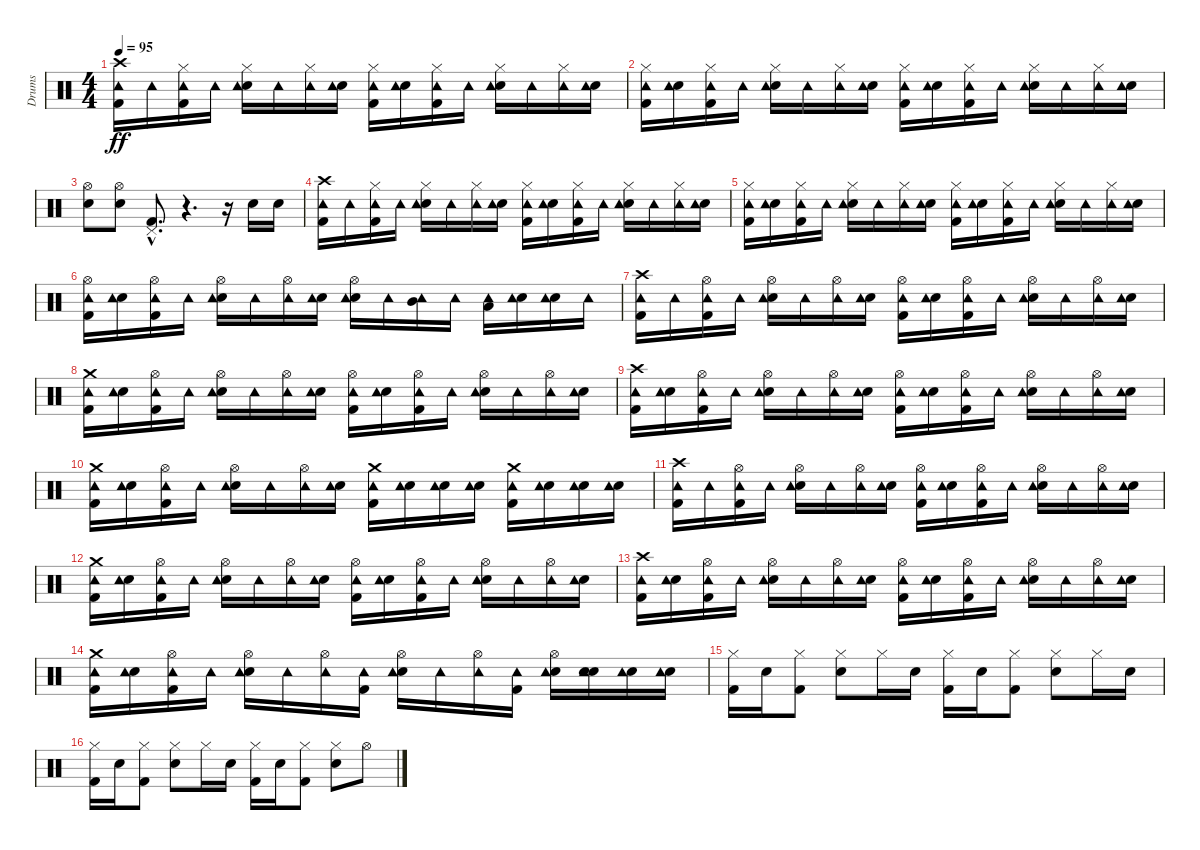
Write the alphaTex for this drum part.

\track ("Drums" "Drums") {instrument percussion}
\staff {score}
\articulation defaults
\ts (4 4)
\tempo 95
\clef neutral
\ks c
("Kick (hit) 2" "Crash high (hit)" "Tambourine (hit)").16{dy ff} "Tambourine (hit)".16 ("Kick (hit) 2" "Hi-Hat (closed)" "Tambourine (hit)").16 "Tambourine (hit)".16 ("Electric Snare (hit)" "Hi-Hat (closed)" "Tambourine (hit)").16 "Tambourine (hit)".16 ("Hi-Hat (closed)" "Tambourine (hit)").16 ("Electric Snare (hit)" "Tambourine (hit)").16 ("Kick (hit) 2" "Hi-Hat (closed)" "Tambourine (hit)").16 ("Electric Snare (hit)" "Tambourine (hit)").16 ("Kick (hit) 2" "Hi-Hat (closed)" "Tambourine (hit)").16 "Tambourine (hit)".16 ("Electric Snare (hit)" "Hi-Hat (closed)" "Tambourine (hit)").16 "Tambourine (hit)".16 ("Hi-Hat (closed)" "Tambourine (hit)").16 ("Electric Snare (hit)" "Tambourine (hit)").16 |
("Kick (hit) 2" "Hi-Hat (closed)" "Tambourine (hit)").16 ("Electric Snare (hit)" "Tambourine (hit)").16 ("Kick (hit) 2" "Hi-Hat (closed)" "Tambourine (hit)").16 "Tambourine (hit)".16 ("Electric Snare (hit)" "Hi-Hat (closed)" "Tambourine (hit)").16 "Tambourine (hit)".16 ("Hi-Hat (closed)" "Tambourine (hit)").16 ("Electric Snare (hit)" "Tambourine (hit)").16 ("Kick (hit) 2" "Hi-Hat (closed)" "Tambourine (hit)").16 ("Electric Snare (hit)" "Tambourine (hit)").16 ("Kick (hit) 2" "Hi-Hat (closed)" "Tambourine (hit)").16 "Tambourine (hit)".16 ("Electric Snare (hit)" "Hi-Hat (closed)" "Tambourine (hit)").16 "Tambourine (hit)".16 ("Hi-Hat (closed)" "Tambourine (hit)").16 ("Electric Snare (hit)" "Tambourine (hit)").16 |
("Electric Snare (hit)" "Hi-Hat (open)").8 ("Electric Snare (hit)" "Hi-Hat (open)").8 ("Kick (hit) 2"{hac} "Pedal Hi-Hat (hit)"{hac}).8{d} r.4{d} r.16 "Hand Clap (hit)".16 "Hand Clap (hit)".16 |
("Kick (hit) 2" "Crash high (hit)" "Tambourine (hit)").16 "Tambourine (hit)".16 ("Kick (hit) 2" "Hi-Hat (closed)" "Tambourine (hit)").16 "Tambourine (hit)".16 ("Electric Snare (hit)" "Hi-Hat (closed)" "Tambourine (hit)").16 "Tambourine (hit)".16 ("Hi-Hat (closed)" "Tambourine (hit)").16 ("Electric Snare (hit)" "Tambourine (hit)").16 ("Kick (hit) 2" "Hi-Hat (closed)" "Tambourine (hit)").16 ("Electric Snare (hit)" "Tambourine (hit)").16 ("Kick (hit) 2" "Hi-Hat (closed)" "Tambourine (hit)").16 "Tambourine (hit)".16 ("Electric Snare (hit)" "Hi-Hat (closed)" "Tambourine (hit)").16 "Tambourine (hit)".16 ("Hi-Hat (closed)" "Tambourine (hit)").16 ("Electric Snare (hit)" "Tambourine (hit)").16 |
("Kick (hit) 2" "Hi-Hat (closed)" "Tambourine (hit)").16 ("Electric Snare (hit)" "Tambourine (hit)").16 ("Kick (hit) 2" "Hi-Hat (closed)" "Tambourine (hit)").16 "Tambourine (hit)".16 ("Electric Snare (hit)" "Hi-Hat (closed)" "Tambourine (hit)").16 "Tambourine (hit)".16 ("Hi-Hat (closed)" "Tambourine (hit)").16 ("Electric Snare (hit)" "Tambourine (hit)").16 ("Kick (hit) 2" "Hi-Hat (closed)" "Tambourine (hit)").16 ("Electric Snare (hit)" "Tambourine (hit)").16 ("Kick (hit) 2" "Hi-Hat (closed)" "Tambourine (hit)").16 "Tambourine (hit)".16 ("Electric Snare (hit)" "Hi-Hat (closed)" "Tambourine (hit)").16 "Tambourine (hit)".16 ("Hi-Hat (closed)" "Tambourine (hit)").16 ("Electric Snare (hit)" "Tambourine (hit)").16 |
("Kick (hit) 2" "Hi-Hat (open)" "Tambourine (hit)").16 ("Electric Snare (hit)" "Tambourine (hit)").16 ("Kick (hit) 2" "Hi-Hat (open)" "Tambourine (hit)").16 "Tambourine (hit)".16 ("Electric Snare (hit)" "Hi-Hat (open)" "Tambourine (hit)").16 "Tambourine (hit)".16 ("Hi-Hat (open)" "Tambourine (hit)").16 ("Electric Snare (hit)" "Tambourine (hit)").16 ("Electric Snare (hit)" "Hi-Hat (open)" "Tambourine (hit)").16 "Tambourine (hit)".16 ("Mid Tom (hit)" "Tambourine (hit)").16 "Tambourine (hit)".16 ("Low Tom (hit)" "Tambourine (hit)").16 ("Electric Snare (hit)" "Tambourine (hit)").16 ("Electric Snare (hit)" "Tambourine (hit)").16 "Tambourine (hit)".16 |
("Kick (hit) 2" "Crash high (hit)" "Tambourine (hit)").16 "Tambourine (hit)".16 ("Kick (hit) 2" "Hi-Hat (open)" "Tambourine (hit)").16 "Tambourine (hit)".16 ("Electric Snare (hit)" "Hi-Hat (open)" "Tambourine (hit)").16 "Tambourine (hit)".16 ("Hi-Hat (open)" "Tambourine (hit)").16 ("Electric Snare (hit)" "Tambourine (hit)").16 ("Kick (hit) 2" "Hi-Hat (open)" "Tambourine (hit)").16 ("Electric Snare (hit)" "Tambourine (hit)").16 ("Kick (hit) 2" "Hi-Hat (open)" "Tambourine (hit)").16 "Tambourine (hit)".16 ("Electric Snare (hit)" "Hi-Hat (open)" "Tambourine (hit)").16 "Tambourine (hit)".16 ("Hi-Hat (open)" "Tambourine (hit)").16 ("Electric Snare (hit)" "Tambourine (hit)").16 |
("Kick (hit) 2" "Tambourine (hit)" "Crash medium (hit)").16 ("Electric Snare (hit)" "Tambourine (hit)").16 ("Kick (hit) 2" "Hi-Hat (open)" "Tambourine (hit)").16 "Tambourine (hit)".16 ("Electric Snare (hit)" "Hi-Hat (open)" "Tambourine (hit)").16 "Tambourine (hit)".16 ("Hi-Hat (open)" "Tambourine (hit)").16 ("Electric Snare (hit)" "Tambourine (hit)").16 ("Kick (hit) 2" "Hi-Hat (open)" "Tambourine (hit)").16 ("Electric Snare (hit)" "Tambourine (hit)").16 ("Kick (hit) 2" "Hi-Hat (open)" "Tambourine (hit)").16 "Tambourine (hit)".16 ("Electric Snare (hit)" "Hi-Hat (open)" "Tambourine (hit)").16 "Tambourine (hit)".16 ("Hi-Hat (open)" "Tambourine (hit)").16 ("Electric Snare (hit)" "Tambourine (hit)").16 |
("Kick (hit) 2" "Crash high (hit)" "Tambourine (hit)").16 ("Electric Snare (hit)" "Tambourine (hit)").16 ("Kick (hit) 2" "Hi-Hat (open)" "Tambourine (hit)").16 "Tambourine (hit)".16 ("Electric Snare (hit)" "Hi-Hat (open)" "Tambourine (hit)").16 "Tambourine (hit)".16 ("Hi-Hat (open)" "Tambourine (hit)").16 ("Electric Snare (hit)" "Tambourine (hit)").16 ("Kick (hit) 2" "Hi-Hat (open)" "Tambourine (hit)").16 ("Electric Snare (hit)" "Tambourine (hit)").16 ("Kick (hit) 2" "Hi-Hat (open)" "Tambourine (hit)").16 "Tambourine (hit)".16 ("Electric Snare (hit)" "Hi-Hat (open)" "Tambourine (hit)").16 "Tambourine (hit)".16 ("Hi-Hat (open)" "Tambourine (hit)").16 ("Electric Snare (hit)" "Tambourine (hit)").16 |
("Kick (hit) 2" "Tambourine (hit)" "Crash medium (hit)").16 ("Electric Snare (hit)" "Tambourine (hit)").16 ("Kick (hit) 2" "Hi-Hat (open)" "Tambourine (hit)").16 "Tambourine (hit)".16 ("Electric Snare (hit)" "Hi-Hat (open)" "Tambourine (hit)").16 "Tambourine (hit)".16 ("Hi-Hat (open)" "Tambourine (hit)").16 ("Electric Snare (hit)" "Tambourine (hit)").16 ("Kick (hit) 2" "Tambourine (hit)" "Crash medium (hit)").16 ("Electric Snare (hit)" "Tambourine (hit)").16 ("Electric Snare (hit)" "Tambourine (hit)").16 ("Electric Snare (hit)" "Tambourine (hit)").16 ("Kick (hit) 2" "Tambourine (hit)" "Crash medium (hit)").16 ("Electric Snare (hit)" "Tambourine (hit)").16 ("Electric Snare (hit)" "Tambourine (hit)").16 ("Electric Snare (hit)" "Tambourine (hit)").16 |
("Kick (hit) 2" "Crash high (hit)" "Tambourine (hit)").16 "Tambourine (hit)".16 ("Kick (hit) 2" "Hi-Hat (open)" "Tambourine (hit)").16 "Tambourine (hit)".16 ("Electric Snare (hit)" "Hi-Hat (open)" "Tambourine (hit)").16 "Tambourine (hit)".16 ("Hi-Hat (open)" "Tambourine (hit)").16 ("Electric Snare (hit)" "Tambourine (hit)").16 ("Kick (hit) 2" "Hi-Hat (open)" "Tambourine (hit)").16 ("Electric Snare (hit)" "Tambourine (hit)").16 ("Kick (hit) 2" "Hi-Hat (open)" "Tambourine (hit)").16 "Tambourine (hit)".16 ("Electric Snare (hit)" "Hi-Hat (open)" "Tambourine (hit)").16 "Tambourine (hit)".16 ("Hi-Hat (open)" "Tambourine (hit)").16 ("Electric Snare (hit)" "Tambourine (hit)").16 |
("Kick (hit) 2" "Tambourine (hit)" "Crash medium (hit)").16 ("Electric Snare (hit)" "Tambourine (hit)").16 ("Kick (hit) 2" "Hi-Hat (open)" "Tambourine (hit)").16 "Tambourine (hit)".16 ("Electric Snare (hit)" "Hi-Hat (open)" "Tambourine (hit)").16 "Tambourine (hit)".16 ("Hi-Hat (open)" "Tambourine (hit)").16 ("Electric Snare (hit)" "Tambourine (hit)").16 ("Kick (hit) 2" "Hi-Hat (open)" "Tambourine (hit)").16 ("Electric Snare (hit)" "Tambourine (hit)").16 ("Kick (hit) 2" "Hi-Hat (open)" "Tambourine (hit)").16 "Tambourine (hit)".16 ("Electric Snare (hit)" "Hi-Hat (open)" "Tambourine (hit)").16 "Tambourine (hit)".16 ("Hi-Hat (open)" "Tambourine (hit)").16 ("Electric Snare (hit)" "Tambourine (hit)").16 |
("Kick (hit) 2" "Crash high (hit)" "Tambourine (hit)").16 ("Electric Snare (hit)" "Tambourine (hit)").16 ("Kick (hit) 2" "Hi-Hat (open)" "Tambourine (hit)").16 "Tambourine (hit)".16 ("Electric Snare (hit)" "Hi-Hat (open)" "Tambourine (hit)").16 "Tambourine (hit)".16 ("Hi-Hat (open)" "Tambourine (hit)").16 ("Electric Snare (hit)" "Tambourine (hit)").16 ("Kick (hit) 2" "Hi-Hat (open)" "Tambourine (hit)").16 ("Electric Snare (hit)" "Tambourine (hit)").16 ("Kick (hit) 2" "Hi-Hat (open)" "Tambourine (hit)").16 "Tambourine (hit)".16 ("Electric Snare (hit)" "Hi-Hat (open)" "Tambourine (hit)").16 "Tambourine (hit)".16 ("Hi-Hat (open)" "Tambourine (hit)").16 ("Electric Snare (hit)" "Tambourine (hit)").16 |
("Kick (hit) 2" "Tambourine (hit)" "Crash medium (hit)").16 ("Electric Snare (hit)" "Tambourine (hit)").16 ("Kick (hit) 2" "Hi-Hat (open)" "Tambourine (hit)").16 "Tambourine (hit)".16 ("Electric Snare (hit)" "Hi-Hat (open)" "Tambourine (hit)").16 "Tambourine (hit)".16 ("Hi-Hat (open)" "Tambourine (hit)").16 ("Kick (hit) 2" "Tambourine (hit)").16 ("Electric Snare (hit)" "Hi-Hat (open)" "Tambourine (hit)").16 "Tambourine (hit)".16 ("Hi-Hat (open)" "Tambourine (hit)").16 ("Kick (hit) 2" "Tambourine (hit)").16 ("Electric Snare (hit)" "Hi-Hat (open)" "Tambourine (hit)").16 ("Electric Snare (hit)" "Tambourine (hit)" "Electric Snare (hit)").16 ("Electric Snare (hit)" "Tambourine (hit)").16 ("Electric Snare (hit)" "Tambourine (hit)").16 |
("Kick (hit) 2" "Hi-Hat (closed)").16 "Electric Snare (hit)".16 ("Kick (hit) 2" "Hi-Hat (closed)").8 ("Electric Snare (hit)" "Hi-Hat (closed)").8 "Hi-Hat (closed)".16 "Electric Snare (hit)".16 ("Kick (hit) 2" "Hi-Hat (closed)").16 "Electric Snare (hit)".16 ("Kick (hit) 2" "Hi-Hat (closed)").8 ("Electric Snare (hit)" "Hi-Hat (closed)").8 "Hi-Hat (closed)".16 "Electric Snare (hit)".16 |
("Kick (hit) 2" "Hi-Hat (closed)").16 "Electric Snare (hit)".16 ("Kick (hit) 2" "Hi-Hat (closed)").8 ("Electric Snare (hit)" "Hi-Hat (closed)").8 "Hi-Hat (closed)".16 "Electric Snare (hit)".16 ("Kick (hit) 2" "Hi-Hat (closed)").16 "Electric Snare (hit)".16 ("Kick (hit) 2" "Hi-Hat (closed)").8 ("Electric Snare (hit)" "Hi-Hat (closed)").8 "Hi-Hat (open)".8
